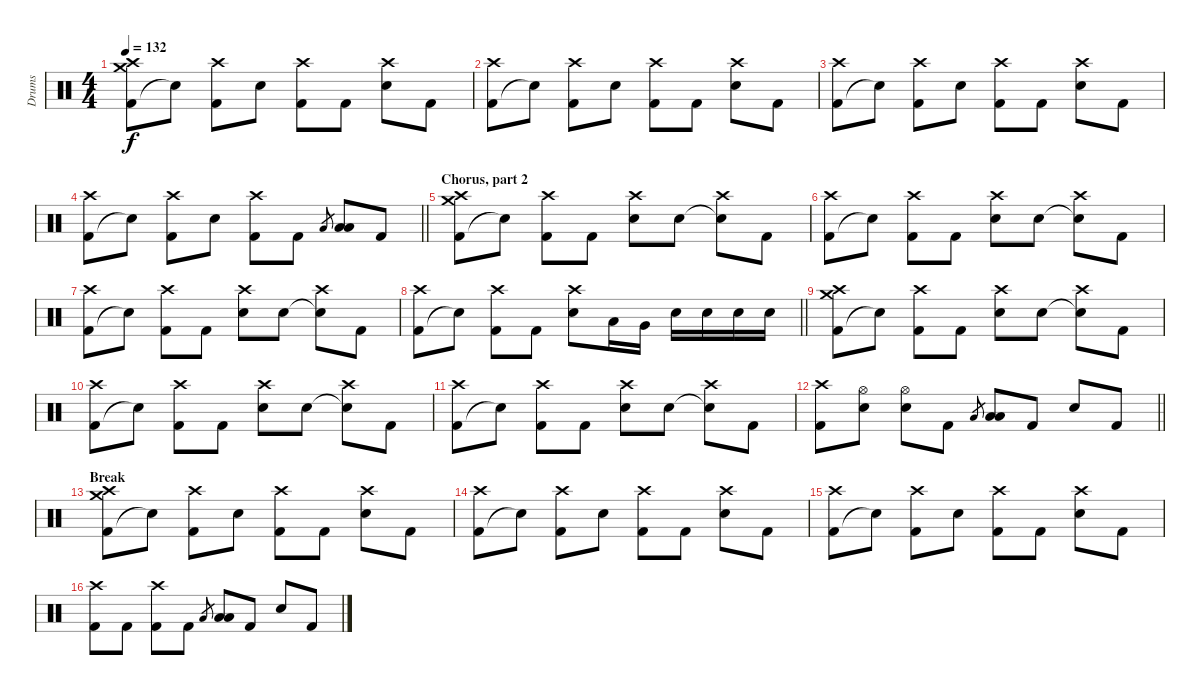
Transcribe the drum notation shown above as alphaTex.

\track ("Drums" "Drums") {instrument percussion}
\staff {score}
\articulation defaults
\ts (4 4)
\tempo 132
\clef neutral
\ks c
("Kick (hit) 2" "Crash medium (hit)" "Crash high (hit)").8{dy f} "Snare (hit)"{t}.8 ("Kick (hit) 2" "Crash high (hit)").8 "Electric Snare (hit)".8 ("Kick (hit) 2" "Crash high (hit)").8 "Kick (hit) 2".8 ("Electric Snare (hit)" "Crash high (hit)").8 "Kick (hit) 2".8 |
("Kick (hit) 2" "Crash high (hit)").8 "Snare (hit)"{t}.8 ("Kick (hit) 2" "Crash high (hit)").8 "Electric Snare (hit)".8 ("Kick (hit) 2" "Crash high (hit)").8 "Kick (hit) 2".8 ("Electric Snare (hit)" "Crash high (hit)").8 "Kick (hit) 2".8 |
("Kick (hit) 2" "Crash high (hit)").8 "Snare (hit)"{t}.8 ("Kick (hit) 2" "Crash high (hit)").8 "Electric Snare (hit)".8 ("Kick (hit) 2" "Crash high (hit)").8 "Kick (hit) 2".8 ("Electric Snare (hit)" "Crash high (hit)").8 "Kick (hit) 2".8 |
\barLineRight lightlight
("Kick (hit) 2" "Crash high (hit)").8 "Snare (hit)"{t}.8 ("Kick (hit) 2" "Crash high (hit)").8 "Electric Snare (hit)".8 ("Kick (hit) 2" "Crash high (hit)").8 "Kick (hit) 2".8 "Low Tom (hit)".8{gr} ("Low Tom (hit)" "Low Floor Tom (hit)").8 "Kick (hit) 2".8 |
\section ("" "Chorus, part 2")
("Kick (hit) 2" "Crash medium (hit)" "Crash high (hit)").8 "Snare (hit)"{t}.8 ("Kick (hit) 2" "Crash high (hit)").8 "Kick (hit) 2".8 ("Electric Snare (hit)" "Crash high (hit)").8 "Electric Snare (hit)".8 ("Snare (hit)"{t} "Crash high (hit)").8 "Kick (hit) 2".8 |
("Kick (hit) 2" "Crash high (hit)").8 "Snare (hit)"{t}.8 ("Kick (hit) 2" "Crash high (hit)").8 "Kick (hit) 2".8 ("Electric Snare (hit)" "Crash high (hit)").8 "Electric Snare (hit)".8 ("Snare (hit)"{t} "Crash high (hit)").8 "Kick (hit) 2".8 |
("Kick (hit) 2" "Crash high (hit)").8 "Snare (hit)"{t}.8 ("Kick (hit) 2" "Crash high (hit)").8 "Kick (hit) 2".8 ("Electric Snare (hit)" "Crash high (hit)").8 "Electric Snare (hit)".8 ("Snare (hit)"{t} "Crash high (hit)").8 "Kick (hit) 2".8 |
\barLineRight lightlight
("Kick (hit) 2" "Crash high (hit)").8 "Snare (hit)"{t}.8 ("Kick (hit) 2" "Crash high (hit)").8 "Kick (hit) 2".8 ("Electric Snare (hit)" "Crash high (hit)").8 "Low Tom (hit)".16 "Very Low Tom (hit)".16 "Electric Snare (hit)".16 "Electric Snare (hit)".16 "Electric Snare (hit)".16 "Electric Snare (hit)".16 |
("Kick (hit) 2" "Crash medium (hit)" "Crash high (hit)").8 "Snare (hit)"{t}.8 ("Kick (hit) 2" "Crash high (hit)").8 "Kick (hit) 2".8 ("Electric Snare (hit)" "Crash high (hit)").8 "Electric Snare (hit)".8 ("Snare (hit)"{t} "Crash high (hit)").8 "Kick (hit) 2".8 |
("Kick (hit) 2" "Crash high (hit)").8 "Snare (hit)"{t}.8 ("Kick (hit) 2" "Crash high (hit)").8 "Kick (hit) 2".8 ("Electric Snare (hit)" "Crash high (hit)").8 "Electric Snare (hit)".8 ("Snare (hit)"{t} "Crash high (hit)").8 "Kick (hit) 2".8 |
("Kick (hit) 2" "Crash high (hit)").8 "Snare (hit)"{t}.8 ("Kick (hit) 2" "Crash high (hit)").8 "Kick (hit) 2".8 ("Electric Snare (hit)" "Crash high (hit)").8 "Electric Snare (hit)".8 ("Snare (hit)"{t} "Crash high (hit)").8 "Kick (hit) 2".8 |
\barLineRight lightlight
("Kick (hit) 2" "Crash high (hit)").8 ("Electric Snare (hit)" "Hi-Hat (open)").8 ("Electric Snare (hit)" "Hi-Hat (open)").8 "Kick (hit) 2".8 "Low Tom (hit)".8{gr} ("Low Tom (hit)" "Low Floor Tom (hit)").8 "Kick (hit) 2".8 "Electric Snare (hit)".8 "Kick (hit) 2".8 |
\section ("" "Break")
("Kick (hit) 2" "Crash medium (hit)" "Crash high (hit)").8 "Snare (hit)"{t}.8 ("Kick (hit) 2" "Crash high (hit)").8 "Electric Snare (hit)".8 ("Kick (hit) 2" "Crash high (hit)").8 "Kick (hit) 2".8 ("Electric Snare (hit)" "Crash high (hit)").8 "Kick (hit) 2".8 |
("Kick (hit) 2" "Crash high (hit)").8 "Snare (hit)"{t}.8 ("Kick (hit) 2" "Crash high (hit)").8 "Electric Snare (hit)".8 ("Kick (hit) 2" "Crash high (hit)").8 "Kick (hit) 2".8 ("Electric Snare (hit)" "Crash high (hit)").8 "Kick (hit) 2".8 |
("Kick (hit) 2" "Crash high (hit)").8 "Snare (hit)"{t}.8 ("Kick (hit) 2" "Crash high (hit)").8 "Electric Snare (hit)".8 ("Kick (hit) 2" "Crash high (hit)").8 "Kick (hit) 2".8 ("Electric Snare (hit)" "Crash high (hit)").8 "Kick (hit) 2".8 |
("Kick (hit) 2" "Crash high (hit)").8 "Kick (hit) 2".8 ("Kick (hit) 2" "Crash high (hit)").8 "Kick (hit) 2".8 "Low Tom (hit)".8{gr} ("Low Tom (hit)" "Low Floor Tom (hit)").8 "Kick (hit) 2".8 "Electric Snare (hit)".8 "Kick (hit) 2".8
